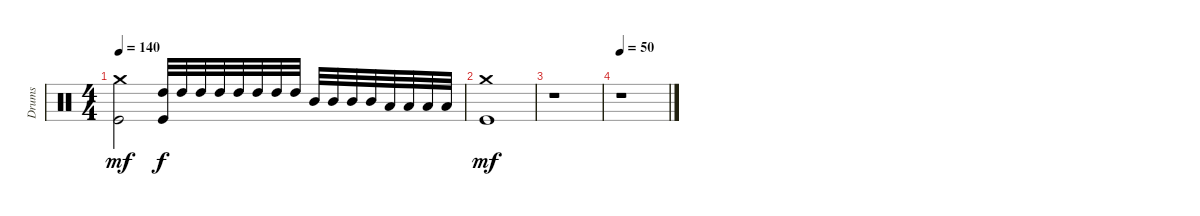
\track ("Drums" "Drums") {instrument percussion}
\staff {score}
\articulation defaults
\ts (4 4)
\tempo 140
\clef neutral
\ks c
("Crash medium (hit)" "Kick (hit)").2{dy mf} ("High Tom (hit)" "Kick (hit)").32{dy f} "High Tom (hit)".32 "High Tom (hit)".32 "High Tom (hit)".32 "High Tom (hit)".32 "High Tom (hit)".32 "High Tom (hit)".32 "High Tom (hit)".32 "Mid Tom (hit)".32 "Mid Tom (hit)".32 "Mid Tom (hit)".32 "Mid Tom (hit)".32 "Low Tom (hit)".32 "Low Tom (hit)".32 "Low Tom (hit)".32 "Low Tom (hit)".32 |
("Crash medium (hit)" "Kick (hit)").1{dy mf} |
r.1 |
\tempo 50
r.1
